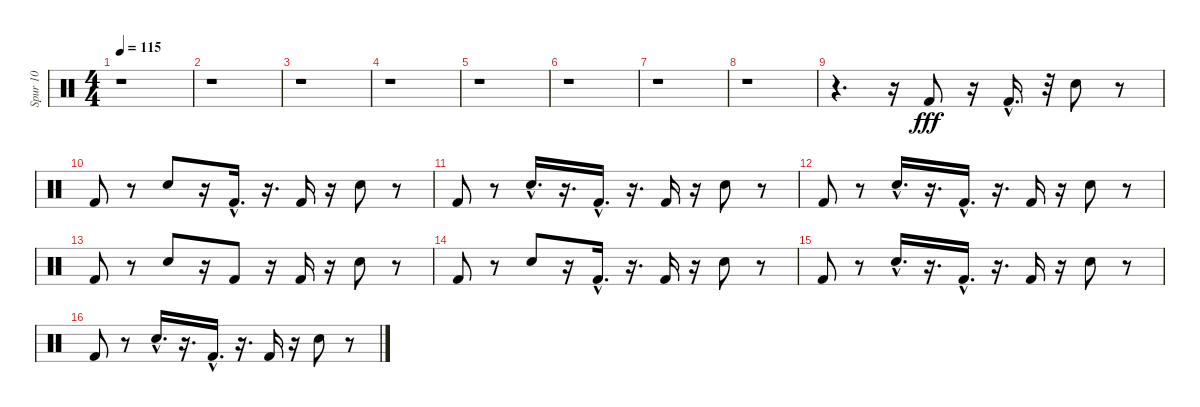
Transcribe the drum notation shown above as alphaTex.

\track ("Spur 10" "Spur 10") {instrument percussion}
\staff {score}
\articulation defaults
\ts (4 4)
\tempo 115
\clef neutral
\ks c
r.1{dy fff} |
r.1 |
r.1 |
r.1 |
r.1 |
r.1 |
r.1 |
r.1 |
r.4{d} r.16 "Kick (hit) 2".8 r.16 "Kick (hit) 2"{hac}.16{d} r.32 "Snare (hit) 2".8 r.8 |
"Kick (hit) 2".8 r.8 "Snare (hit) 2".8 r.16 "Kick (hit) 2"{hac}.16{d} r.16{d} "Kick (hit) 2".16 r.16 "Snare (hit) 2".8 r.8 |
"Kick (hit) 2".8 r.8 "Snare (hit) 2"{hac}.16{d} r.16{d} "Kick (hit) 2"{hac}.16{d} r.16{d} "Kick (hit) 2".16 r.16 "Snare (hit) 2".8 r.8 |
"Kick (hit) 2".8 r.8 "Snare (hit) 2"{hac}.16{d} r.16{d} "Kick (hit) 2"{hac}.16{d} r.16{d} "Kick (hit) 2".16 r.16 "Snare (hit) 2".8 r.8 |
"Kick (hit) 2".8 r.8 "Snare (hit) 2".8 r.16 "Kick (hit) 2".8 r.16 "Kick (hit) 2".16 r.16 "Snare (hit) 2".8 r.8 |
"Kick (hit) 2".8 r.8 "Snare (hit) 2".8 r.16 "Kick (hit) 2"{hac}.16{d} r.16{d} "Kick (hit) 2".16 r.16 "Snare (hit) 2".8 r.8 |
"Kick (hit) 2".8 r.8 "Snare (hit) 2"{hac}.16{d} r.16{d} "Kick (hit) 2"{hac}.16{d} r.16{d} "Kick (hit) 2".16 r.16 "Snare (hit) 2".8 r.8 |
"Kick (hit) 2".8 r.8 "Snare (hit) 2"{hac}.16{d} r.16{d} "Kick (hit) 2"{hac}.16{d} r.16{d} "Kick (hit) 2".16 r.16 "Snare (hit) 2".8 r.8
